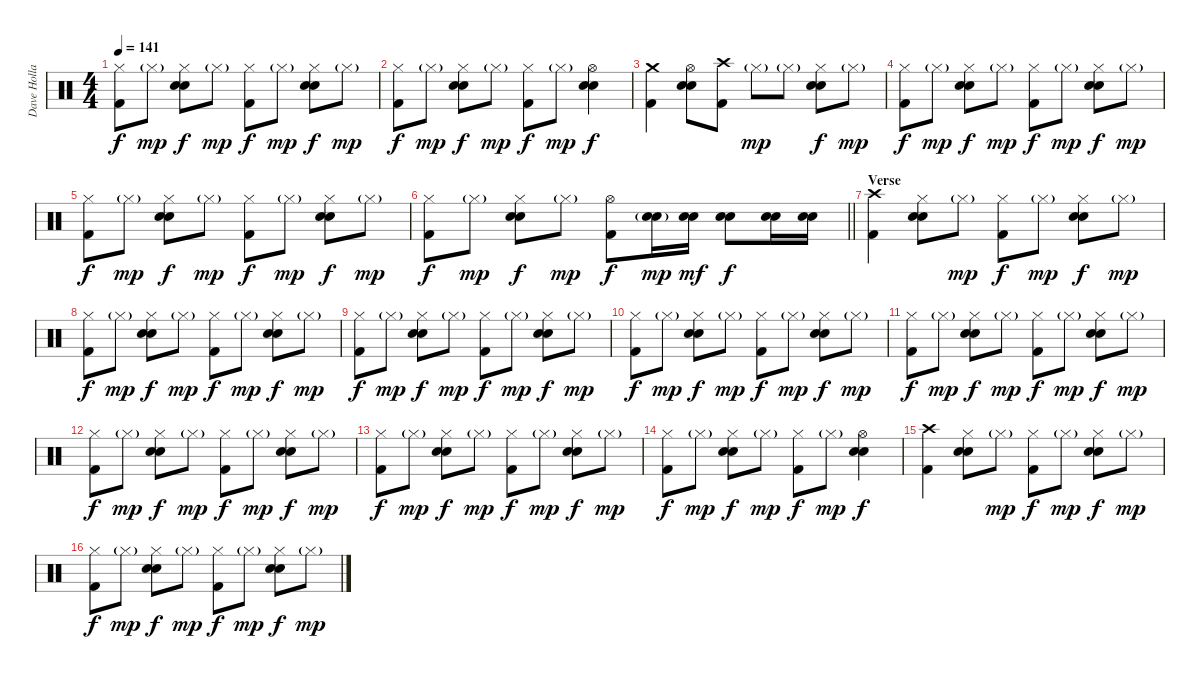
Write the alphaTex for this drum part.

\track ("Dave Holland" "Dave Holla") {instrument percussion}
\staff {score}
\articulation defaults
\ts (4 4)
\tempo 141
\clef neutral
\ks c
("Hi-Hat (closed)" "Kick (hit) 2").8{dy f} "Hi-Hat (closed)"{g}.8{dy mp} ("Hi-Hat (closed)" "Electric Snare (hit)" "Snare (hit) 2").8{dy f} "Hi-Hat (closed)"{g}.8{dy mp} ("Hi-Hat (closed)" "Kick (hit) 2").8{dy f} "Hi-Hat (closed)"{g}.8{dy mp} ("Hi-Hat (closed)" "Electric Snare (hit)" "Snare (hit) 2").8{dy f} "Hi-Hat (closed)"{g}.8{dy mp} |
("Hi-Hat (closed)" "Kick (hit) 2").8{dy f} "Hi-Hat (closed)"{g}.8{dy mp} ("Hi-Hat (closed)" "Electric Snare (hit)" "Snare (hit) 2").8{dy f} "Hi-Hat (closed)"{g}.8{dy mp} ("Hi-Hat (closed)" "Kick (hit) 2").8{dy f} "Hi-Hat (closed)"{g}.8{dy mp} ("Hi-Hat (open)" "Electric Snare (hit)" "Snare (hit) 2").4{dy f} |
("Crash medium (hit)" "Kick (hit) 2").4 ("Hi-Hat (open)" "Electric Snare (hit)" "Snare (hit) 2").8 ("Crash high (hit)" "Kick (hit) 2").8 "Hi-Hat (closed)"{g}.8{dy mp} "Hi-Hat (closed)"{g}.8 ("Hi-Hat (closed)" "Electric Snare (hit)" "Snare (hit) 2").8{dy f} "Hi-Hat (closed)"{g}.8{dy mp} |
("Hi-Hat (closed)" "Kick (hit) 2").8{dy f} "Hi-Hat (closed)"{g}.8{dy mp} ("Hi-Hat (closed)" "Electric Snare (hit)" "Snare (hit) 2").8{dy f} "Hi-Hat (closed)"{g}.8{dy mp} ("Hi-Hat (closed)" "Kick (hit) 2").8{dy f} "Hi-Hat (closed)"{g}.8{dy mp} ("Hi-Hat (closed)" "Electric Snare (hit)" "Snare (hit) 2").8{dy f} "Hi-Hat (closed)"{g}.8{dy mp} |
("Hi-Hat (closed)" "Kick (hit) 2").8{dy f} "Hi-Hat (closed)"{g}.8{dy mp} ("Hi-Hat (closed)" "Electric Snare (hit)" "Snare (hit) 2").8{dy f} "Hi-Hat (closed)"{g}.8{dy mp} ("Hi-Hat (closed)" "Kick (hit) 2").8{dy f} "Hi-Hat (closed)"{g}.8{dy mp} ("Hi-Hat (closed)" "Electric Snare (hit)" "Snare (hit) 2").8{dy f} "Hi-Hat (closed)"{g}.8{dy mp} |
\barLineRight lightlight
("Hi-Hat (closed)" "Kick (hit) 2").8{dy f} "Hi-Hat (closed)"{g}.8{dy mp} ("Hi-Hat (closed)" "Electric Snare (hit)" "Snare (hit) 2").8{dy f} "Hi-Hat (closed)"{g}.8{dy mp} ("Hi-Hat (open)" "Kick (hit) 2").8{dy f} ("Electric Snare (hit)"{g} "Snare (hit) 2"{g}).16{dy mp} ("Electric Snare (hit)" "Snare (hit) 2").16{dy mf} ("Electric Snare (hit)" "Snare (hit) 2").8{dy f} ("Electric Snare (hit)" "Snare (hit) 2").16 ("Electric Snare (hit)" "Snare (hit) 2").16 |
\section ("" "Verse")
("Crash high (hit)" "Kick (hit) 2").4 ("Hi-Hat (closed)" "Electric Snare (hit)" "Snare (hit) 2").8 "Hi-Hat (closed)"{g}.8{dy mp} ("Hi-Hat (closed)" "Kick (hit) 2").8{dy f} "Hi-Hat (closed)"{g}.8{dy mp} ("Hi-Hat (closed)" "Electric Snare (hit)" "Snare (hit) 2").8{dy f} "Hi-Hat (closed)"{g}.8{dy mp} |
("Hi-Hat (closed)" "Kick (hit) 2").8{dy f} "Hi-Hat (closed)"{g}.8{dy mp} ("Hi-Hat (closed)" "Electric Snare (hit)" "Snare (hit) 2").8{dy f} "Hi-Hat (closed)"{g}.8{dy mp} ("Hi-Hat (closed)" "Kick (hit) 2").8{dy f} "Hi-Hat (closed)"{g}.8{dy mp} ("Hi-Hat (closed)" "Electric Snare (hit)" "Snare (hit) 2").8{dy f} "Hi-Hat (closed)"{g}.8{dy mp} |
("Hi-Hat (closed)" "Kick (hit) 2").8{dy f} "Hi-Hat (closed)"{g}.8{dy mp} ("Hi-Hat (closed)" "Electric Snare (hit)" "Snare (hit) 2").8{dy f} "Hi-Hat (closed)"{g}.8{dy mp} ("Hi-Hat (closed)" "Kick (hit) 2").8{dy f} "Hi-Hat (closed)"{g}.8{dy mp} ("Hi-Hat (closed)" "Electric Snare (hit)" "Snare (hit) 2").8{dy f} "Hi-Hat (closed)"{g}.8{dy mp} |
("Hi-Hat (closed)" "Kick (hit) 2").8{dy f} "Hi-Hat (closed)"{g}.8{dy mp} ("Hi-Hat (closed)" "Electric Snare (hit)" "Snare (hit) 2").8{dy f} "Hi-Hat (closed)"{g}.8{dy mp} ("Hi-Hat (closed)" "Kick (hit) 2").8{dy f} "Hi-Hat (closed)"{g}.8{dy mp} ("Hi-Hat (closed)" "Electric Snare (hit)" "Snare (hit) 2").8{dy f} "Hi-Hat (closed)"{g}.8{dy mp} |
("Hi-Hat (closed)" "Kick (hit) 2").8{dy f} "Hi-Hat (closed)"{g}.8{dy mp} ("Hi-Hat (closed)" "Electric Snare (hit)" "Snare (hit) 2").8{dy f} "Hi-Hat (closed)"{g}.8{dy mp} ("Hi-Hat (closed)" "Kick (hit) 2").8{dy f} "Hi-Hat (closed)"{g}.8{dy mp} ("Hi-Hat (closed)" "Electric Snare (hit)" "Snare (hit) 2").8{dy f} "Hi-Hat (closed)"{g}.8{dy mp} |
("Hi-Hat (closed)" "Kick (hit) 2").8{dy f} "Hi-Hat (closed)"{g}.8{dy mp} ("Hi-Hat (closed)" "Electric Snare (hit)" "Snare (hit) 2").8{dy f} "Hi-Hat (closed)"{g}.8{dy mp} ("Hi-Hat (closed)" "Kick (hit) 2").8{dy f} "Hi-Hat (closed)"{g}.8{dy mp} ("Hi-Hat (closed)" "Electric Snare (hit)" "Snare (hit) 2").8{dy f} "Hi-Hat (closed)"{g}.8{dy mp} |
("Hi-Hat (closed)" "Kick (hit) 2").8{dy f} "Hi-Hat (closed)"{g}.8{dy mp} ("Hi-Hat (closed)" "Electric Snare (hit)" "Snare (hit) 2").8{dy f} "Hi-Hat (closed)"{g}.8{dy mp} ("Hi-Hat (closed)" "Kick (hit) 2").8{dy f} "Hi-Hat (closed)"{g}.8{dy mp} ("Hi-Hat (closed)" "Electric Snare (hit)" "Snare (hit) 2").8{dy f} "Hi-Hat (closed)"{g}.8{dy mp} |
("Hi-Hat (closed)" "Kick (hit) 2").8{dy f} "Hi-Hat (closed)"{g}.8{dy mp} ("Hi-Hat (closed)" "Electric Snare (hit)" "Snare (hit) 2").8{dy f} "Hi-Hat (closed)"{g}.8{dy mp} ("Hi-Hat (closed)" "Kick (hit) 2").8{dy f} "Hi-Hat (closed)"{g}.8{dy mp} ("Hi-Hat (open)" "Electric Snare (hit)" "Snare (hit) 2").4{dy f} |
("Crash high (hit)" "Kick (hit) 2").4 ("Hi-Hat (closed)" "Electric Snare (hit)" "Snare (hit) 2").8 "Hi-Hat (closed)"{g}.8{dy mp} ("Hi-Hat (closed)" "Kick (hit) 2").8{dy f} "Hi-Hat (closed)"{g}.8{dy mp} ("Hi-Hat (closed)" "Electric Snare (hit)" "Snare (hit) 2").8{dy f} "Hi-Hat (closed)"{g}.8{dy mp} |
("Hi-Hat (closed)" "Kick (hit) 2").8{dy f} "Hi-Hat (closed)"{g}.8{dy mp} ("Hi-Hat (closed)" "Electric Snare (hit)" "Snare (hit) 2").8{dy f} "Hi-Hat (closed)"{g}.8{dy mp} ("Hi-Hat (closed)" "Kick (hit) 2").8{dy f} "Hi-Hat (closed)"{g}.8{dy mp} ("Hi-Hat (closed)" "Electric Snare (hit)" "Snare (hit) 2").8{dy f} "Hi-Hat (closed)"{g}.8{dy mp}
